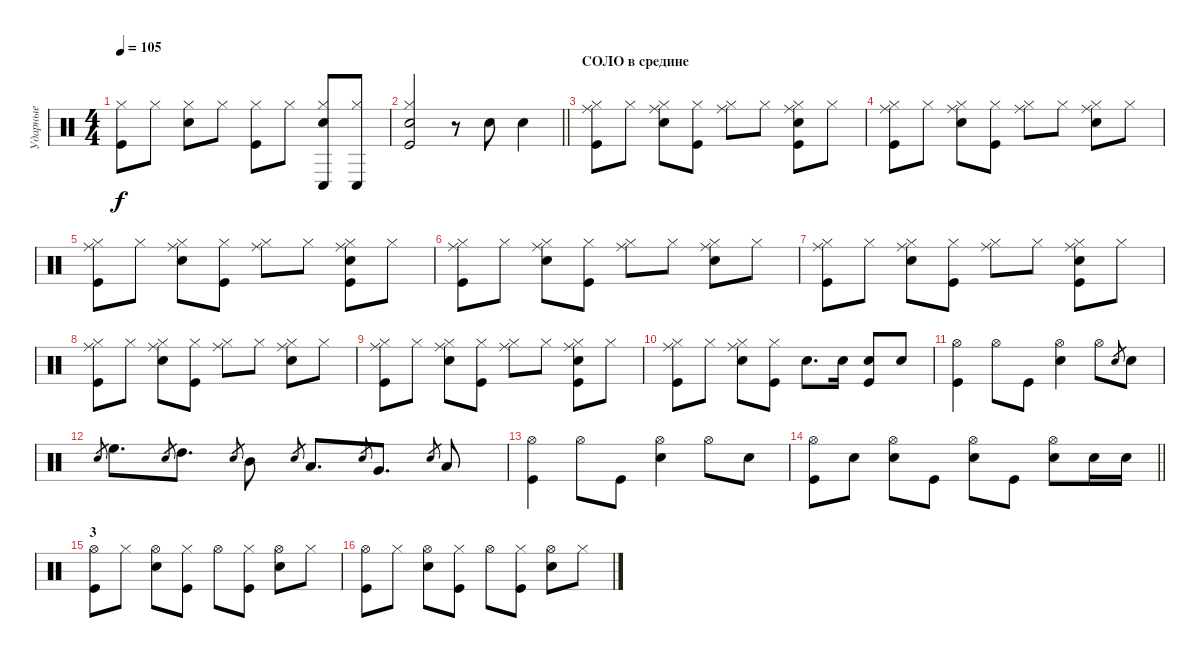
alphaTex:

\track ("Ударные" "Ударные") {instrument percussion}
\staff {score}
\articulation defaults
\ts (4 4)
\tempo 105
\clef neutral
\ks c
("Kick (hit)" "Hi-Hat (closed)").8{dy f} "Hi-Hat (closed)".8 ("Snare (hit) 2" "Hi-Hat (closed)").8 "Hi-Hat (closed)".8 ("Hi-Hat (closed)" "Kick (hit)").8 "Hi-Hat (closed)".8 ("Hi-Hat (closed)" "Conga low (hit)" "Snare (hit) 2").8 ("Hi-Hat (closed)" "Conga low (hit)").8 |
\barLineRight lightlight
("Kick (hit)" "Hi-Hat (closed)" "Snare (hit) 2").2 r.8 "Snare (hit) 2".8 "Snare (hit) 2".4 |
\section ("" "СОЛО в средине")
("Kick (hit)" "Hi-Hat (closed)" "Ride (middle)").8 "Hi-Hat (closed)".8 ("Snare (hit) 2" "Hi-Hat (closed)" "Ride (middle)").8 ("Hi-Hat (closed)" "Kick (hit)").8 ("Hi-Hat (closed)" "Ride (middle)").8 "Hi-Hat (closed)".8 ("Hi-Hat (closed)" "Kick (hit)" "Snare (hit) 2" "Ride (middle)").8 "Hi-Hat (closed)".8 |
("Kick (hit)" "Hi-Hat (closed)" "Ride (middle)").8 "Hi-Hat (closed)".8 ("Snare (hit) 2" "Hi-Hat (closed)" "Ride (middle)").8 ("Hi-Hat (closed)" "Kick (hit)").8 ("Hi-Hat (closed)" "Ride (middle)").8 "Hi-Hat (closed)".8 ("Hi-Hat (closed)" "Ride (middle)" "Snare (hit) 2").8 "Hi-Hat (closed)".8 |
("Kick (hit)" "Hi-Hat (closed)" "Ride (middle)").8 "Hi-Hat (closed)".8 ("Snare (hit) 2" "Hi-Hat (closed)" "Ride (middle)").8 ("Hi-Hat (closed)" "Kick (hit)").8 ("Hi-Hat (closed)" "Ride (middle)").8 "Hi-Hat (closed)".8 ("Hi-Hat (closed)" "Kick (hit)" "Snare (hit) 2" "Ride (middle)").8 "Hi-Hat (closed)".8 |
("Kick (hit)" "Hi-Hat (closed)" "Ride (middle)").8 "Hi-Hat (closed)".8 ("Snare (hit) 2" "Hi-Hat (closed)" "Ride (middle)").8 ("Hi-Hat (closed)" "Kick (hit)").8 ("Hi-Hat (closed)" "Ride (middle)").8 "Hi-Hat (closed)".8 ("Hi-Hat (closed)" "Ride (middle)" "Snare (hit) 2").8 "Hi-Hat (closed)".8 |
("Kick (hit)" "Hi-Hat (closed)" "Ride (middle)").8 "Hi-Hat (closed)".8 ("Snare (hit) 2" "Hi-Hat (closed)" "Ride (middle)").8 ("Hi-Hat (closed)" "Kick (hit)").8 ("Hi-Hat (closed)" "Ride (middle)").8 "Hi-Hat (closed)".8 ("Hi-Hat (closed)" "Kick (hit)" "Snare (hit) 2" "Ride (middle)").8 "Hi-Hat (closed)".8 |
("Kick (hit)" "Hi-Hat (closed)" "Ride (middle)").8 "Hi-Hat (closed)".8 ("Snare (hit) 2" "Hi-Hat (closed)" "Ride (middle)").8 ("Hi-Hat (closed)" "Kick (hit)").8 ("Hi-Hat (closed)" "Ride (middle)").8 "Hi-Hat (closed)".8 ("Hi-Hat (closed)" "Ride (middle)" "Snare (hit) 2").8 "Hi-Hat (closed)".8 |
("Kick (hit)" "Hi-Hat (closed)" "Ride (middle)").8 "Hi-Hat (closed)".8 ("Snare (hit) 2" "Hi-Hat (closed)" "Ride (middle)").8 ("Hi-Hat (closed)" "Kick (hit)").8 ("Hi-Hat (closed)" "Ride (middle)").8 "Hi-Hat (closed)".8 ("Hi-Hat (closed)" "Kick (hit)" "Snare (hit) 2" "Ride (middle)").8 "Hi-Hat (closed)".8 |
("Kick (hit)" "Hi-Hat (closed)" "Ride (middle)").8 "Hi-Hat (closed)".8 ("Snare (hit) 2" "Hi-Hat (closed)" "Ride (middle)").8 ("Hi-Hat (closed)" "Kick (hit)").8 "Snare (hit) 2".8{d} "Snare (hit) 2".16 ("Snare (hit) 2" "Kick (hit)").8 "Snare (hit) 2".8 |
("Kick (hit)" "Hi-Hat (open)").4 "Hi-Hat (open)".8 "Kick (hit)".8 ("Hi-Hat (open)" "Snare (hit) 2").4 "Hi-Hat (open)".8 "Snare (hit) 2".8{gr} "Snare (hit) 2".8 |
"Snare (hit) 2".8{gr} "High Floor Tom (hit)".8{d} "Snare (hit) 2".8{gr} "High Tom (hit)".8{d} "Snare (hit) 2".8{gr} "Mid Tom (hit)".8 "Snare (hit) 2".8{gr} "Low Tom (hit)".8{d} "Snare (hit) 2".8{gr} "Very Low Tom (hit)".8{d} "Snare (hit) 2".8{gr} "Low Floor Tom (hit)".8 |
("Kick (hit)" "Hi-Hat (open)").4 "Hi-Hat (open)".8 "Kick (hit)".8 ("Hi-Hat (open)" "Snare (hit) 2").4 "Hi-Hat (open)".8 "Snare (hit) 2".8 |
\barLineRight lightlight
("Kick (hit)" "Hi-Hat (open)").8 "Snare (hit) 2".8 ("Snare (hit) 2" "Hi-Hat (open)").8 "Kick (hit)".8 ("Snare (hit) 2" "Hi-Hat (open)").8 "Kick (hit)".8 ("Snare (hit) 2" "Hi-Hat (open)").8 "Snare (hit) 2".16 "Snare (hit) 2".16 |
\section ("" "3")
("Hi-Hat (open)" "Kick (hit)").8 "Hi-Hat (closed)".8 ("Hi-Hat (open)" "Snare (hit) 2").8 ("Hi-Hat (closed)" "Kick (hit)").8 "Hi-Hat (open)".8 ("Hi-Hat (closed)" "Kick (hit)").8 ("Hi-Hat (open)" "Snare (hit) 2").8 "Hi-Hat (closed)".8 |
("Hi-Hat (open)" "Kick (hit)").8 "Hi-Hat (closed)".8 ("Hi-Hat (open)" "Snare (hit) 2").8 ("Hi-Hat (closed)" "Kick (hit)").8 "Hi-Hat (open)".8 ("Hi-Hat (closed)" "Kick (hit)").8 ("Hi-Hat (open)" "Snare (hit) 2").8 "Hi-Hat (closed)".8
